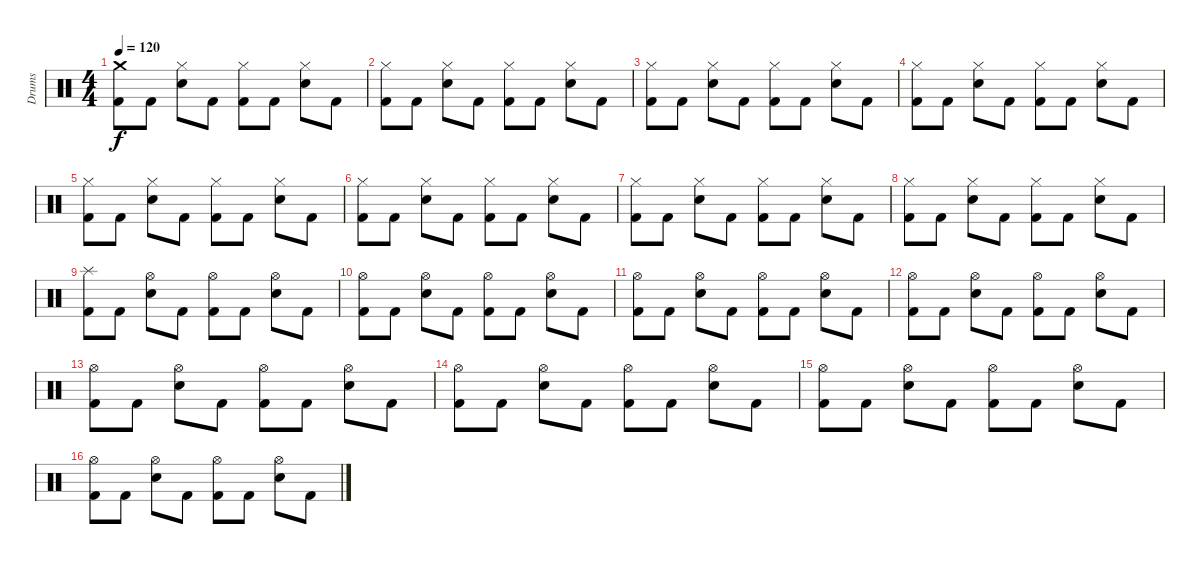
\track ("Drums" "Drums") {instrument percussion}
\staff {score}
\articulation defaults
\ts (4 4)
\tempo 120
\clef neutral
\ks c
("Crash medium (hit)" "Kick (hit) 2").8{dy f} "Kick (hit) 2".8 ("Hi-Hat (closed)" "Snare (hit) 2").8 "Kick (hit) 2".8 ("Hi-Hat (closed)" "Kick (hit) 2").8 "Kick (hit) 2".8 ("Hi-Hat (closed)" "Snare (hit) 2").8 "Kick (hit) 2".8 |
("Hi-Hat (closed)" "Kick (hit) 2").8 "Kick (hit) 2".8 ("Hi-Hat (closed)" "Snare (hit) 2").8 "Kick (hit) 2".8 ("Hi-Hat (closed)" "Kick (hit) 2").8 "Kick (hit) 2".8 ("Hi-Hat (closed)" "Snare (hit) 2").8 "Kick (hit) 2".8 |
("Hi-Hat (closed)" "Kick (hit) 2").8 "Kick (hit) 2".8 ("Hi-Hat (closed)" "Snare (hit) 2").8 "Kick (hit) 2".8 ("Hi-Hat (closed)" "Kick (hit) 2").8 "Kick (hit) 2".8 ("Hi-Hat (closed)" "Snare (hit) 2").8 "Kick (hit) 2".8 |
("Hi-Hat (closed)" "Kick (hit) 2").8 "Kick (hit) 2".8 ("Hi-Hat (closed)" "Snare (hit) 2").8 "Kick (hit) 2".8 ("Hi-Hat (closed)" "Kick (hit) 2").8 "Kick (hit) 2".8 ("Hi-Hat (closed)" "Snare (hit) 2").8 "Kick (hit) 2".8 |
("Hi-Hat (closed)" "Kick (hit) 2").8 "Kick (hit) 2".8 ("Hi-Hat (closed)" "Snare (hit) 2").8 "Kick (hit) 2".8 ("Hi-Hat (closed)" "Kick (hit) 2").8 "Kick (hit) 2".8 ("Hi-Hat (closed)" "Snare (hit) 2").8 "Kick (hit) 2".8 |
("Hi-Hat (closed)" "Kick (hit) 2").8 "Kick (hit) 2".8 ("Hi-Hat (closed)" "Snare (hit) 2").8 "Kick (hit) 2".8 ("Hi-Hat (closed)" "Kick (hit) 2").8 "Kick (hit) 2".8 ("Hi-Hat (closed)" "Snare (hit) 2").8 "Kick (hit) 2".8 |
("Hi-Hat (closed)" "Kick (hit) 2").8 "Kick (hit) 2".8 ("Hi-Hat (closed)" "Snare (hit) 2").8 "Kick (hit) 2".8 ("Hi-Hat (closed)" "Kick (hit) 2").8 "Kick (hit) 2".8 ("Hi-Hat (closed)" "Snare (hit) 2").8 "Kick (hit) 2".8 |
("Hi-Hat (closed)" "Kick (hit) 2").8 "Kick (hit) 2".8 ("Hi-Hat (closed)" "Snare (hit) 2").8 "Kick (hit) 2".8 ("Hi-Hat (closed)" "Kick (hit) 2").8 "Kick (hit) 2".8 ("Hi-Hat (closed)" "Snare (hit) 2").8 "Kick (hit) 2".8 |
("Splash (hit)" "Kick (hit) 2").8 "Kick (hit) 2".8 ("Hi-Hat (open)" "Snare (hit) 2").8 "Kick (hit) 2".8 ("Hi-Hat (open)" "Kick (hit) 2").8 "Kick (hit) 2".8 ("Hi-Hat (open)" "Snare (hit) 2").8 "Kick (hit) 2".8 |
("Hi-Hat (open)" "Kick (hit) 2").8 "Kick (hit) 2".8 ("Hi-Hat (open)" "Snare (hit) 2").8 "Kick (hit) 2".8 ("Hi-Hat (open)" "Kick (hit) 2").8 "Kick (hit) 2".8 ("Hi-Hat (open)" "Snare (hit) 2").8 "Kick (hit) 2".8 |
("Hi-Hat (open)" "Kick (hit) 2").8 "Kick (hit) 2".8 ("Hi-Hat (open)" "Snare (hit) 2").8 "Kick (hit) 2".8 ("Hi-Hat (open)" "Kick (hit) 2").8 "Kick (hit) 2".8 ("Hi-Hat (open)" "Snare (hit) 2").8 "Kick (hit) 2".8 |
("Hi-Hat (open)" "Kick (hit) 2").8 "Kick (hit) 2".8 ("Hi-Hat (open)" "Snare (hit) 2").8 "Kick (hit) 2".8 ("Hi-Hat (open)" "Kick (hit) 2").8 "Kick (hit) 2".8 ("Hi-Hat (open)" "Snare (hit) 2").8 "Kick (hit) 2".8 |
("Hi-Hat (open)" "Kick (hit) 2").8 "Kick (hit) 2".8 ("Hi-Hat (open)" "Snare (hit) 2").8 "Kick (hit) 2".8 ("Hi-Hat (open)" "Kick (hit) 2").8 "Kick (hit) 2".8 ("Hi-Hat (open)" "Snare (hit) 2").8 "Kick (hit) 2".8 |
("Hi-Hat (open)" "Kick (hit) 2").8 "Kick (hit) 2".8 ("Hi-Hat (open)" "Snare (hit) 2").8 "Kick (hit) 2".8 ("Hi-Hat (open)" "Kick (hit) 2").8 "Kick (hit) 2".8 ("Hi-Hat (open)" "Snare (hit) 2").8 "Kick (hit) 2".8 |
("Hi-Hat (open)" "Kick (hit) 2").8 "Kick (hit) 2".8 ("Hi-Hat (open)" "Snare (hit) 2").8 "Kick (hit) 2".8 ("Hi-Hat (open)" "Kick (hit) 2").8 "Kick (hit) 2".8 ("Hi-Hat (open)" "Snare (hit) 2").8 "Kick (hit) 2".8 |
("Hi-Hat (open)" "Kick (hit) 2").8 "Kick (hit) 2".8 ("Hi-Hat (open)" "Snare (hit) 2").8 "Kick (hit) 2".8 ("Hi-Hat (open)" "Kick (hit) 2").8 "Kick (hit) 2".8 ("Hi-Hat (open)" "Snare (hit) 2").8 "Kick (hit) 2".8
